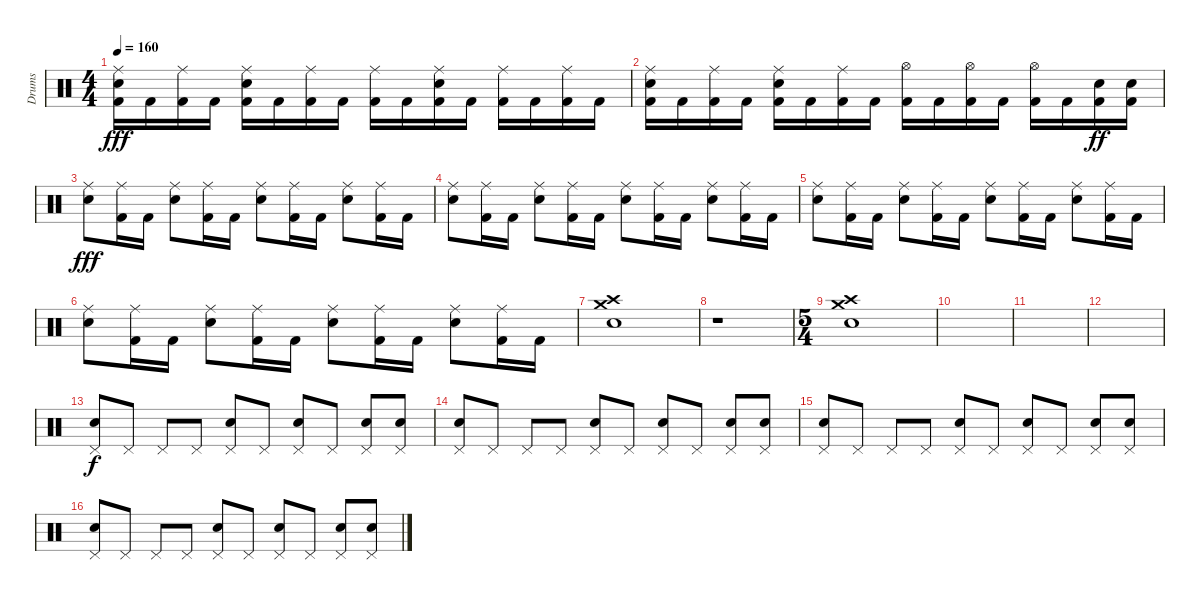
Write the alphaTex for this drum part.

\track ("Drums" "Drums") {instrument percussion}
\staff {score}
\articulation defaults
\ts (4 4)
\tempo 160
\clef neutral
\ks c
("Kick (hit) 2" "Electric Snare (hit)" "Ride (middle)").16{dy fff} "Kick (hit) 2".16 ("Kick (hit) 2" "Ride (middle)").16 "Kick (hit) 2".16 ("Kick (hit) 2" "Electric Snare (hit)" "Ride (middle)").16 "Kick (hit) 2".16 ("Kick (hit) 2" "Ride (middle)").16 "Kick (hit) 2".16 ("Kick (hit) 2" "Ride (middle)").16 "Kick (hit) 2".16 ("Kick (hit) 2" "Electric Snare (hit)" "Ride (middle)").16 "Kick (hit) 2".16 ("Kick (hit) 2" "Ride (middle)").16 "Kick (hit) 2".16 ("Kick (hit) 2" "Ride (middle)").16 "Kick (hit) 2".16 |
("Kick (hit) 2" "Electric Snare (hit)" "Ride (middle)").16 "Kick (hit) 2".16 ("Kick (hit) 2" "Ride (middle)").16 "Kick (hit) 2".16 ("Kick (hit) 2" "Electric Snare (hit)" "Ride (middle)").16 "Kick (hit) 2".16 ("Kick (hit) 2" "Ride (middle)").16 "Kick (hit) 2".16 ("Kick (hit) 2" "Hi-Hat (open)").16 "Kick (hit) 2".16 ("Kick (hit) 2" "Hi-Hat (open)").16 "Kick (hit) 2".16 ("Kick (hit) 2" "Hi-Hat (open)").16 "Kick (hit) 2".16 ("Kick (hit) 2" "Electric Snare (hit)").16{dy ff} ("Kick (hit) 2" "Electric Snare (hit)").16 |
("Electric Snare (hit)" "Ride (middle)").8{dy fff} ("Kick (hit) 2" "Ride (middle)").16 "Kick (hit) 2".16 ("Electric Snare (hit)" "Ride (middle)").8 ("Kick (hit) 2" "Ride (middle)").16 "Kick (hit) 2".16 ("Electric Snare (hit)" "Ride (middle)").8 ("Kick (hit) 2" "Ride (middle)").16 "Kick (hit) 2".16 ("Electric Snare (hit)" "Ride (middle)").8 ("Kick (hit) 2" "Ride (middle)").16 "Kick (hit) 2".16 |
("Electric Snare (hit)" "Ride (middle)").8 ("Kick (hit) 2" "Ride (middle)").16 "Kick (hit) 2".16 ("Electric Snare (hit)" "Ride (middle)").8 ("Kick (hit) 2" "Ride (middle)").16 "Kick (hit) 2".16 ("Electric Snare (hit)" "Ride (middle)").8 ("Kick (hit) 2" "Ride (middle)").16 "Kick (hit) 2".16 ("Electric Snare (hit)" "Ride (middle)").8 ("Kick (hit) 2" "Ride (middle)").16 "Kick (hit) 2".16 |
("Electric Snare (hit)" "Ride (middle)").8 ("Kick (hit) 2" "Ride (middle)").16 "Kick (hit) 2".16 ("Electric Snare (hit)" "Ride (middle)").8 ("Kick (hit) 2" "Ride (middle)").16 "Kick (hit) 2".16 ("Electric Snare (hit)" "Ride (middle)").8 ("Kick (hit) 2" "Ride (middle)").16 "Kick (hit) 2".16 ("Electric Snare (hit)" "Ride (middle)").8 ("Kick (hit) 2" "Ride (middle)").16 "Kick (hit) 2".16 |
("Electric Snare (hit)" "Ride (middle)").8 ("Kick (hit) 2" "Ride (middle)").16 "Kick (hit) 2".16 ("Electric Snare (hit)" "Ride (middle)").8 ("Kick (hit) 2" "Ride (middle)").16 "Kick (hit) 2".16 ("Electric Snare (hit)" "Ride (middle)").8 ("Kick (hit) 2" "Ride (middle)").16 "Kick (hit) 2".16 ("Electric Snare (hit)" "Ride (middle)").8 ("Kick (hit) 2" "Ride (middle)").16 "Kick (hit) 2".16 |
("Crash high (hit)" "Crash medium (hit)" "Electric Snare (hit)").1 |
r.1 |
\ts (5 4)
("Crash high (hit)" "Crash medium (hit)" "Electric Snare (hit)").1 |
|
|
|
("Pedal Hi-Hat (hit)" "Electric Snare (hit)").8{dy f} "Pedal Hi-Hat (hit)".8 "Pedal Hi-Hat (hit)".8 "Pedal Hi-Hat (hit)".8 ("Pedal Hi-Hat (hit)" "Electric Snare (hit)").8 "Pedal Hi-Hat (hit)".8 ("Pedal Hi-Hat (hit)" "Electric Snare (hit)").8 "Pedal Hi-Hat (hit)".8 ("Pedal Hi-Hat (hit)" "Electric Snare (hit)").8 ("Pedal Hi-Hat (hit)" "Electric Snare (hit)").8 |
("Pedal Hi-Hat (hit)" "Electric Snare (hit)").8 "Pedal Hi-Hat (hit)".8 "Pedal Hi-Hat (hit)".8 "Pedal Hi-Hat (hit)".8 ("Pedal Hi-Hat (hit)" "Electric Snare (hit)").8 "Pedal Hi-Hat (hit)".8 ("Pedal Hi-Hat (hit)" "Electric Snare (hit)").8 "Pedal Hi-Hat (hit)".8 ("Pedal Hi-Hat (hit)" "Electric Snare (hit)").8 ("Pedal Hi-Hat (hit)" "Electric Snare (hit)").8 |
("Pedal Hi-Hat (hit)" "Electric Snare (hit)").8 "Pedal Hi-Hat (hit)".8 "Pedal Hi-Hat (hit)".8 "Pedal Hi-Hat (hit)".8 ("Pedal Hi-Hat (hit)" "Electric Snare (hit)").8 "Pedal Hi-Hat (hit)".8 ("Pedal Hi-Hat (hit)" "Electric Snare (hit)").8 "Pedal Hi-Hat (hit)".8 ("Pedal Hi-Hat (hit)" "Electric Snare (hit)").8 ("Pedal Hi-Hat (hit)" "Electric Snare (hit)").8 |
("Pedal Hi-Hat (hit)" "Electric Snare (hit)").8 "Pedal Hi-Hat (hit)".8 "Pedal Hi-Hat (hit)".8 "Pedal Hi-Hat (hit)".8 ("Pedal Hi-Hat (hit)" "Electric Snare (hit)").8 "Pedal Hi-Hat (hit)".8 ("Pedal Hi-Hat (hit)" "Electric Snare (hit)").8 "Pedal Hi-Hat (hit)".8 ("Pedal Hi-Hat (hit)" "Electric Snare (hit)").8 ("Pedal Hi-Hat (hit)" "Electric Snare (hit)").8
